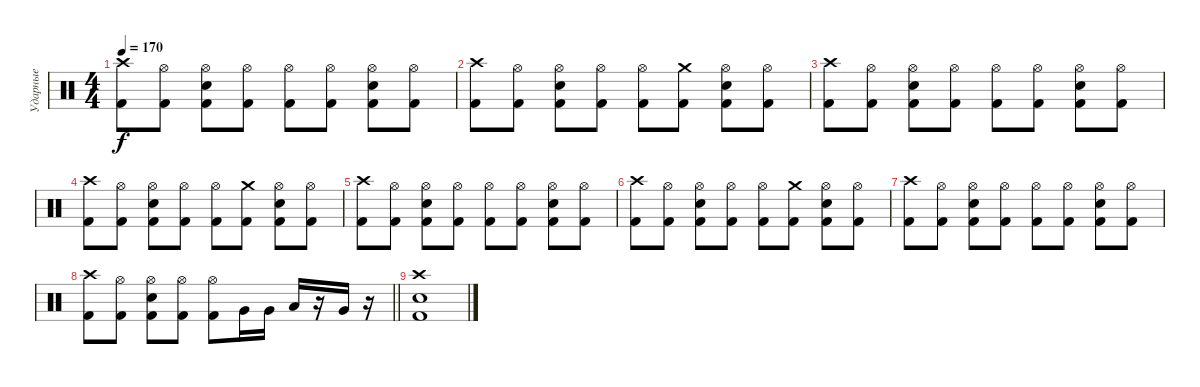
\track ("Ударные" "Ударные") {instrument percussion}
\staff {score}
\articulation defaults
\ts (4 4)
\tempo 170
\clef neutral
\ks c
("Crash high (hit)" "Kick (hit) 2").8{dy f} ("Hi-Hat (open)" "Kick (hit) 2").8 ("Hi-Hat (open)" "Snare (hit) 2" "Kick (hit) 2").8 ("Hi-Hat (open)" "Kick (hit) 2").8 ("Hi-Hat (open)" "Kick (hit) 2").8 ("Hi-Hat (open)" "Kick (hit) 2").8 ("Hi-Hat (open)" "Snare (hit) 2" "Kick (hit) 2").8 ("Hi-Hat (open)" "Kick (hit) 2").8 |
("Crash high (hit)" "Kick (hit) 2").8 ("Hi-Hat (open)" "Kick (hit) 2").8 ("Hi-Hat (open)" "Snare (hit) 2" "Kick (hit) 2").8 ("Hi-Hat (open)" "Kick (hit) 2").8 ("Hi-Hat (open)" "Kick (hit) 2").8 ("Crash medium (hit)" "Kick (hit) 2").8 ("Hi-Hat (open)" "Snare (hit) 2" "Kick (hit) 2").8 ("Hi-Hat (open)" "Kick (hit) 2").8 |
("Crash high (hit)" "Kick (hit) 2").8 ("Hi-Hat (open)" "Kick (hit) 2").8 ("Hi-Hat (open)" "Snare (hit) 2" "Kick (hit) 2").8 ("Hi-Hat (open)" "Kick (hit) 2").8 ("Hi-Hat (open)" "Kick (hit) 2").8 ("Hi-Hat (open)" "Kick (hit) 2").8 ("Hi-Hat (open)" "Snare (hit) 2" "Kick (hit) 2").8 ("Hi-Hat (open)" "Kick (hit) 2").8 |
("Crash high (hit)" "Kick (hit) 2").8 ("Hi-Hat (open)" "Kick (hit) 2").8 ("Hi-Hat (open)" "Snare (hit) 2" "Kick (hit) 2").8 ("Hi-Hat (open)" "Kick (hit) 2").8 ("Hi-Hat (open)" "Kick (hit) 2").8 ("Crash medium (hit)" "Kick (hit) 2").8 ("Hi-Hat (open)" "Snare (hit) 2" "Kick (hit) 2").8 ("Hi-Hat (open)" "Kick (hit) 2").8 |
("Crash high (hit)" "Kick (hit) 2").8 ("Hi-Hat (open)" "Kick (hit) 2").8 ("Hi-Hat (open)" "Snare (hit) 2" "Kick (hit) 2").8 ("Hi-Hat (open)" "Kick (hit) 2").8 ("Hi-Hat (open)" "Kick (hit) 2").8 ("Hi-Hat (open)" "Kick (hit) 2").8 ("Hi-Hat (open)" "Snare (hit) 2" "Kick (hit) 2").8 ("Hi-Hat (open)" "Kick (hit) 2").8 |
("Crash high (hit)" "Kick (hit) 2").8 ("Hi-Hat (open)" "Kick (hit) 2").8 ("Hi-Hat (open)" "Snare (hit) 2" "Kick (hit) 2").8 ("Hi-Hat (open)" "Kick (hit) 2").8 ("Hi-Hat (open)" "Kick (hit) 2").8 ("Crash medium (hit)" "Kick (hit) 2").8 ("Hi-Hat (open)" "Snare (hit) 2" "Kick (hit) 2").8 ("Hi-Hat (open)" "Kick (hit) 2").8 |
("Crash high (hit)" "Kick (hit) 2").8 ("Hi-Hat (open)" "Kick (hit) 2").8 ("Hi-Hat (open)" "Snare (hit) 2" "Kick (hit) 2").8 ("Hi-Hat (open)" "Kick (hit) 2").8 ("Hi-Hat (open)" "Kick (hit) 2").8 ("Hi-Hat (open)" "Kick (hit) 2").8 ("Hi-Hat (open)" "Snare (hit) 2" "Kick (hit) 2").8 ("Hi-Hat (open)" "Kick (hit) 2").8 |
\barLineRight lightlight
("Crash high (hit)" "Kick (hit) 2").8 ("Hi-Hat (open)" "Kick (hit) 2").8 ("Hi-Hat (open)" "Snare (hit) 2" "Kick (hit) 2").8 ("Hi-Hat (open)" "Kick (hit) 2").8 ("Hi-Hat (open)" "Kick (hit) 2").8 "Very Low Tom (hit)".16 "Very Low Tom (hit)".16 "Low Tom (hit)".16 r.16 "Very Low Tom (hit)".16 r.16 |
("Crash high (hit)" "Snare (hit) 2" "Kick (hit) 2").1
